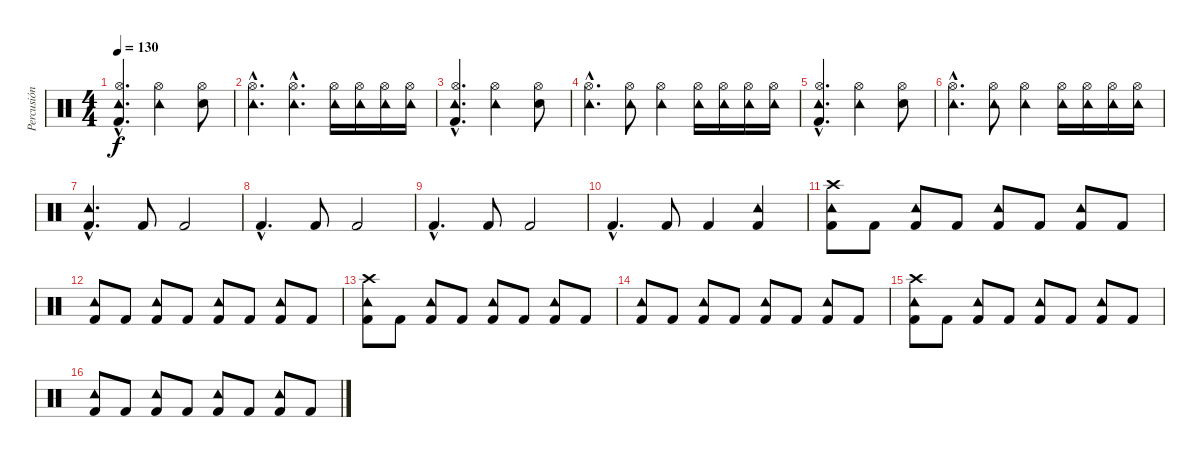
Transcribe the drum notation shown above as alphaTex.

\track ("Percusión" "Percusión") {instrument percussion}
\staff {score}
\articulation defaults
\ts (4 4)
\tempo 130
\clef neutral
\ks c
("Tambourine (hit)"{hac} "Hi-Hat (open)"{hac} "Kick (hit) 2"{hac}).4{d dy f} ("Tambourine (hit)" "Hi-Hat (open)").2 ("Electric Snare (hit)" "Hi-Hat (open)").8 |
("Tambourine (hit)"{hac} "Hi-Hat (open)"{hac}).4{d} ("Tambourine (hit)"{hac} "Hi-Hat (open)"{hac}).4{d} ("Tambourine (hit)" "Hi-Hat (open)").16 ("Tambourine (hit)" "Hi-Hat (open)").16 ("Tambourine (hit)" "Hi-Hat (open)").16 ("Tambourine (hit)" "Hi-Hat (open)").16 |
("Tambourine (hit)"{hac} "Hi-Hat (open)"{hac} "Kick (hit) 2"{hac}).4{d} ("Tambourine (hit)" "Hi-Hat (open)").2 ("Electric Snare (hit)" "Hi-Hat (open)").8 |
("Hi-Hat (open)"{hac} "Tambourine (hit)"{hac}).4{d} ("Hi-Hat (open)" "Tambourine (hit)").8 ("Hi-Hat (open)" "Tambourine (hit)").4 ("Tambourine (hit)" "Hi-Hat (open)").16 ("Tambourine (hit)" "Hi-Hat (open)").16 ("Tambourine (hit)" "Hi-Hat (open)").16 ("Tambourine (hit)" "Hi-Hat (open)").16 |
("Tambourine (hit)"{hac} "Hi-Hat (open)"{hac} "Kick (hit) 2"{hac}).4{d} ("Tambourine (hit)" "Hi-Hat (open)").2 ("Electric Snare (hit)" "Hi-Hat (open)").8 |
("Hi-Hat (open)"{hac} "Tambourine (hit)"{hac}).4{d} ("Hi-Hat (open)" "Tambourine (hit)").8 ("Hi-Hat (open)" "Tambourine (hit)").4 ("Tambourine (hit)" "Hi-Hat (open)").16 ("Tambourine (hit)" "Hi-Hat (open)").16 ("Tambourine (hit)" "Hi-Hat (open)").16 ("Tambourine (hit)" "Hi-Hat (open)").16 |
("Tambourine (hit)"{hac} "Kick (hit) 2"{hac}).4{d} "Kick (hit) 2".8 "Kick (hit) 2".2 |
"Kick (hit) 2"{hac}.4{d} "Kick (hit) 2".8 "Kick (hit) 2".2 |
"Kick (hit) 2"{hac}.4{d} "Kick (hit) 2".8 "Kick (hit) 2".2 |
"Kick (hit) 2"{hac}.4{d} "Kick (hit) 2".8 "Kick (hit) 2".4 ("Tambourine (hit)" "Kick (hit) 2").4 |
("Tambourine (hit)" "Kick (hit) 2" "Crash high (hit)").8 "Kick (hit) 2".8 ("Tambourine (hit)" "Kick (hit) 2").8 "Kick (hit) 2".8 ("Tambourine (hit)" "Kick (hit) 2").8 "Kick (hit) 2".8 ("Tambourine (hit)" "Kick (hit) 2").8 "Kick (hit) 2".8 |
("Tambourine (hit)" "Kick (hit) 2").8 "Kick (hit) 2".8 ("Tambourine (hit)" "Kick (hit) 2").8 "Kick (hit) 2".8 ("Tambourine (hit)" "Kick (hit) 2").8 "Kick (hit) 2".8 ("Tambourine (hit)" "Kick (hit) 2").8 "Kick (hit) 2".8 |
("Tambourine (hit)" "Kick (hit) 2" "Crash high (hit)").8 "Kick (hit) 2".8 ("Tambourine (hit)" "Kick (hit) 2").8 "Kick (hit) 2".8 ("Tambourine (hit)" "Kick (hit) 2").8 "Kick (hit) 2".8 ("Tambourine (hit)" "Kick (hit) 2").8 "Kick (hit) 2".8 |
("Tambourine (hit)" "Kick (hit) 2").8 "Kick (hit) 2".8 ("Tambourine (hit)" "Kick (hit) 2").8 "Kick (hit) 2".8 ("Tambourine (hit)" "Kick (hit) 2").8 "Kick (hit) 2".8 ("Tambourine (hit)" "Kick (hit) 2").8 "Kick (hit) 2".8 |
("Tambourine (hit)" "Kick (hit) 2" "Crash high (hit)").8 "Kick (hit) 2".8 ("Tambourine (hit)" "Kick (hit) 2").8 "Kick (hit) 2".8 ("Tambourine (hit)" "Kick (hit) 2").8 "Kick (hit) 2".8 ("Tambourine (hit)" "Kick (hit) 2").8 "Kick (hit) 2".8 |
("Tambourine (hit)" "Kick (hit) 2").8 "Kick (hit) 2".8 ("Tambourine (hit)" "Kick (hit) 2").8 "Kick (hit) 2".8 ("Tambourine (hit)" "Kick (hit) 2").8 "Kick (hit) 2".8 ("Tambourine (hit)" "Kick (hit) 2").8 "Kick (hit) 2".8
